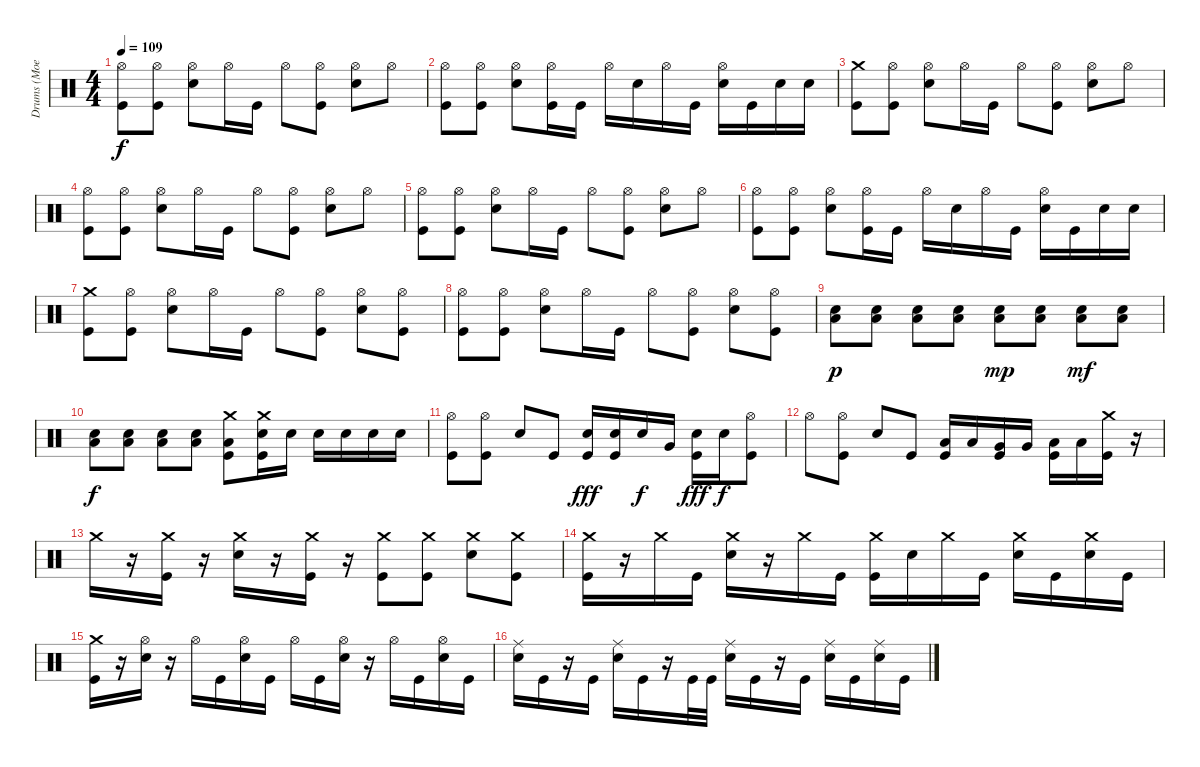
\track ("Drums (Moe)" "Drums (Moe") {instrument percussion}
\staff {score}
\articulation defaults
\ts (4 4)
\tempo 109
\clef neutral
\ks c
("Kick (hit)" "Hi-Hat (open)").8{dy f} ("Kick (hit)" "Hi-Hat (open)").8 ("Snare (hit) 2" "Hi-Hat (open)").8 "Hi-Hat (open)".16 "Kick (hit)".16 "Hi-Hat (open)".8 ("Kick (hit)" "Hi-Hat (open)").8 ("Snare (hit) 2" "Hi-Hat (open)").8 "Hi-Hat (open)".8 |
("Kick (hit)" "Hi-Hat (open)").8 ("Kick (hit)" "Hi-Hat (open)").8 ("Snare (hit) 2" "Hi-Hat (open)").8 ("Kick (hit)" "Hi-Hat (open)").16 "Kick (hit)".16 "Hi-Hat (open)".16 "Snare (hit) 2".16 "Hi-Hat (open)".16 "Kick (hit)".16 ("Snare (hit) 2" "Hi-Hat (open)").16 "Kick (hit)".16 "Snare (hit) 2".16 "Snare (hit) 2".16 |
("Kick (hit)" "Crash medium (hit)").8 ("Kick (hit)" "Hi-Hat (open)").8 ("Snare (hit) 2" "Hi-Hat (open)").8 "Hi-Hat (open)".16 "Kick (hit)".16 "Hi-Hat (open)".8 ("Kick (hit)" "Hi-Hat (open)").8 ("Snare (hit) 2" "Hi-Hat (open)").8 "Hi-Hat (open)".8 |
("Kick (hit)" "Hi-Hat (open)").8 ("Kick (hit)" "Hi-Hat (open)").8 ("Snare (hit) 2" "Hi-Hat (open)").8 "Hi-Hat (open)".16 "Kick (hit)".16 "Hi-Hat (open)".8 ("Kick (hit)" "Hi-Hat (open)").8 ("Snare (hit) 2" "Hi-Hat (open)").8 "Hi-Hat (open)".8 |
("Kick (hit)" "Hi-Hat (open)").8 ("Kick (hit)" "Hi-Hat (open)").8 ("Snare (hit) 2" "Hi-Hat (open)").8 "Hi-Hat (open)".16 "Kick (hit)".16 "Hi-Hat (open)".8 ("Kick (hit)" "Hi-Hat (open)").8 ("Snare (hit) 2" "Hi-Hat (open)").8 "Hi-Hat (open)".8 |
("Kick (hit)" "Hi-Hat (open)").8 ("Kick (hit)" "Hi-Hat (open)").8 ("Snare (hit) 2" "Hi-Hat (open)").8 ("Kick (hit)" "Hi-Hat (open)").16 "Kick (hit)".16 "Hi-Hat (open)".16 "Snare (hit) 2".16 "Hi-Hat (open)".16 "Kick (hit)".16 ("Snare (hit) 2" "Hi-Hat (open)").16 "Kick (hit)".16 "Snare (hit) 2".16 "Snare (hit) 2".16 |
("Kick (hit)" "Crash medium (hit)").8 ("Kick (hit)" "Hi-Hat (open)").8 ("Snare (hit) 2" "Hi-Hat (open)").8 "Hi-Hat (open)".16 "Kick (hit)".16 "Hi-Hat (open)".8 ("Kick (hit)" "Hi-Hat (open)").8 ("Snare (hit) 2" "Hi-Hat (open)").8 ("Kick (hit)" "Hi-Hat (open)").8 |
("Kick (hit)" "Hi-Hat (open)").8 ("Kick (hit)" "Hi-Hat (open)").8 ("Snare (hit) 2" "Hi-Hat (open)").8 "Hi-Hat (open)".16 "Kick (hit)".16 "Hi-Hat (open)".8 ("Kick (hit)" "Hi-Hat (open)").8 ("Snare (hit) 2" "Hi-Hat (open)").8 ("Kick (hit)" "Hi-Hat (open)").8 |
("Low Floor Tom (hit)" "Snare (hit) 2").8{dy p} ("Low Floor Tom (hit)" "Snare (hit) 2").8 ("Low Floor Tom (hit)" "Snare (hit) 2").8 ("Low Floor Tom (hit)" "Snare (hit) 2").8 ("Low Floor Tom (hit)" "Snare (hit) 2").8{dy mp} ("Low Floor Tom (hit)" "Snare (hit) 2").8 ("Low Floor Tom (hit)" "Snare (hit) 2").8{dy mf} ("Low Floor Tom (hit)" "Snare (hit) 2").8 |
("Low Floor Tom (hit)" "Snare (hit) 2").8{dy f} ("Low Floor Tom (hit)" "Snare (hit) 2").8 ("Low Floor Tom (hit)" "Snare (hit) 2").8 ("Low Floor Tom (hit)" "Snare (hit) 2").8 ("Kick (hit)" "Low Floor Tom (hit)" "Crash medium (hit)").8 ("Kick (hit)" "Snare (hit) 2" "Crash medium (hit)").16 "Snare (hit) 2".16 "Snare (hit) 2".16 "Snare (hit) 2".16 "Snare (hit) 2".16 "Snare (hit) 2".16 |
("Kick (hit)" "Hi-Hat (open)").8 ("Kick (hit)" "Hi-Hat (open)").8 "Snare (hit) 2".8 "Kick (hit)".8 ("Kick (hit)" "Snare (hit) 2").16{dy fff} ("Kick (hit)" "Snare (hit) 2").16 "Snare (hit) 2".16{dy f} "Very Low Tom (hit)".16 ("Kick (hit)" "Snare (hit) 2").16{dy fff} "Snare (hit) 2".16{dy f} ("Kick (hit)" "Hi-Hat (open)").8 |
"Hi-Hat (open)".8 ("Kick (hit)" "Hi-Hat (open)").8 "Snare (hit) 2".8 "Kick (hit)".8 ("Kick (hit)" "Low Tom (hit)").16 "Low Tom (hit)".16 ("Kick (hit)" "Very Low Tom (hit)").16 "Very Low Tom (hit)".16 ("Kick (hit)" "Low Floor Tom (hit)").16 "Low Floor Tom (hit)".16 ("Kick (hit)" "Crash medium (hit)").16 r.16 |
"Crash medium (hit)".16 r.16 ("Kick (hit)" "Crash medium (hit)").16 r.16 ("Snare (hit) 2" "Crash medium (hit)").16 r.16 ("Kick (hit)" "Crash medium (hit)").16 r.16 ("Kick (hit)" "Crash medium (hit)").8 ("Kick (hit)" "Crash medium (hit)").8 ("Snare (hit) 2" "Crash medium (hit)").8 ("Kick (hit)" "Crash medium (hit)").8 |
("Kick (hit)" "Crash medium (hit)").16 r.16 "Crash medium (hit)".16 "Kick (hit)".16 ("Snare (hit) 2" "Crash medium (hit)").16 r.16 "Crash medium (hit)".16 "Kick (hit)".16 ("Kick (hit)" "Crash medium (hit)").16 "Snare (hit) 2".16 "Crash medium (hit)".16 "Kick (hit)".16 ("Snare (hit) 2" "Crash medium (hit)").16 "Kick (hit)".16 ("Snare (hit) 2" "Crash medium (hit)").16 "Kick (hit)".16 |
("Kick (hit)" "Crash medium (hit)").16 r.16 ("Snare (hit) 2" "Hi-Hat (open)").16 r.16 "Hi-Hat (open)".16 "Kick (hit)".16 ("Snare (hit) 2" "Hi-Hat (open)").16 "Kick (hit)".16 "Hi-Hat (open)".16 "Kick (hit)".16 ("Snare (hit) 2" "Hi-Hat (open)").16 r.16 "Hi-Hat (open)".16 "Kick (hit)".16 ("Snare (hit) 2" "Hi-Hat (open)").16 "Kick (hit)".16 |
("Snare (hit) 2" "Ride (middle)").16 "Kick (hit)".16 r.16 "Kick (hit)".16 ("Snare (hit) 2" "Ride (middle)").16 "Kick (hit)".16 r.16 "Kick (hit)".32 "Kick (hit)".32 ("Snare (hit) 2" "Ride (middle)").16 "Kick (hit)".16 r.16 "Kick (hit)".16 ("Snare (hit) 2" "Ride (middle)").16 "Kick (hit)".16 ("Snare (hit) 2" "Ride (middle)").16 "Kick (hit)".16
